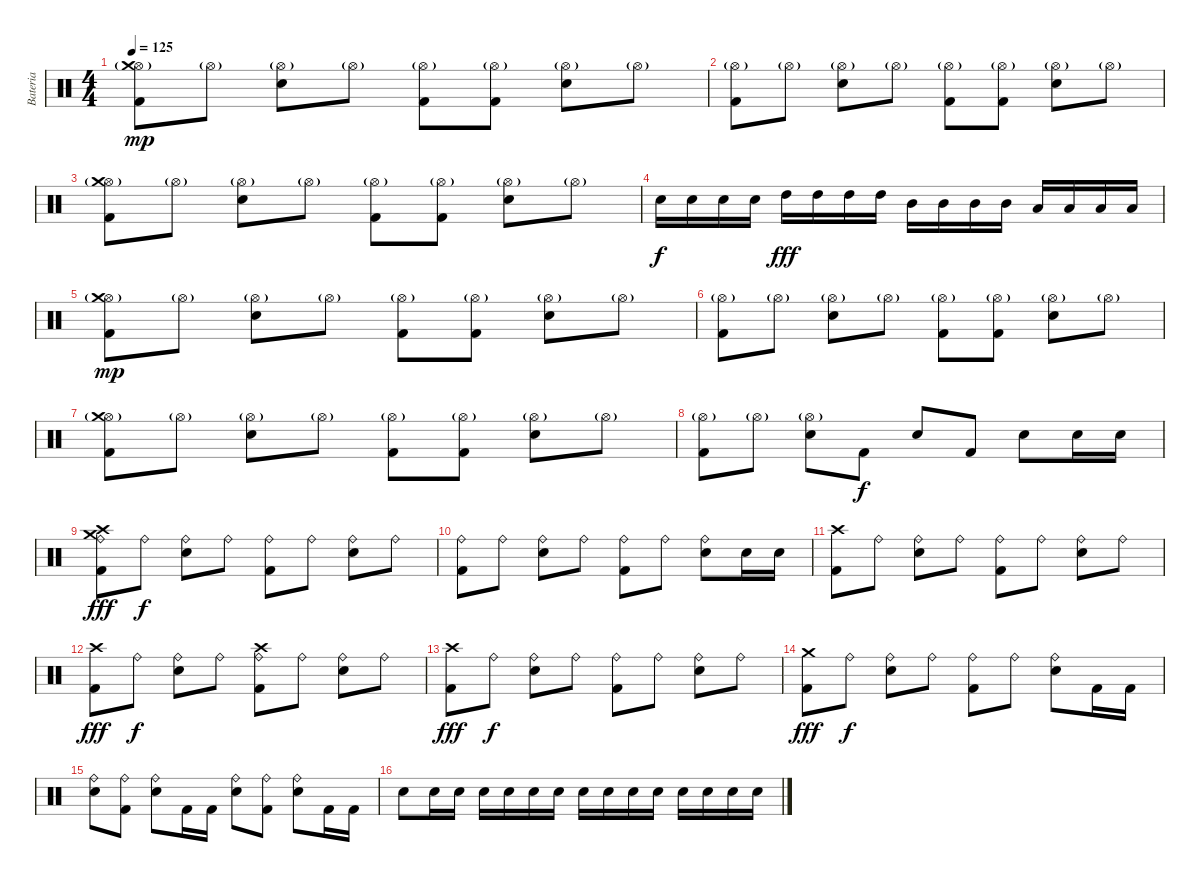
\track ("Bateria" "Bateria") {instrument percussion}
\staff {score}
\articulation defaults
\ts (4 4)
\tempo 125
\clef neutral
\ks c
("Hi-Hat (open)"{g} "Kick (hit) 2" "Crash medium (hit)").8{dy mp} "Hi-Hat (open)"{g}.8 ("Hi-Hat (open)"{g} "Snare (hit) 2").8 "Hi-Hat (open)"{g}.8 ("Hi-Hat (open)"{g} "Kick (hit) 2").8 ("Hi-Hat (open)"{g} "Kick (hit) 2").8 ("Hi-Hat (open)"{g} "Snare (hit) 2").8 "Hi-Hat (open)"{g}.8 |
("Hi-Hat (open)"{g} "Kick (hit) 2").8 "Hi-Hat (open)"{g}.8 ("Hi-Hat (open)"{g} "Snare (hit) 2").8 "Hi-Hat (open)"{g}.8 ("Hi-Hat (open)"{g} "Kick (hit) 2").8 ("Hi-Hat (open)"{g} "Kick (hit) 2").8 ("Hi-Hat (open)"{g} "Snare (hit) 2").8 "Hi-Hat (open)"{g}.8 |
("Hi-Hat (open)"{g} "Kick (hit) 2" "Crash medium (hit)").8 "Hi-Hat (open)"{g}.8 ("Hi-Hat (open)"{g} "Snare (hit) 2").8 "Hi-Hat (open)"{g}.8 ("Hi-Hat (open)"{g} "Kick (hit) 2").8 ("Hi-Hat (open)"{g} "Kick (hit) 2").8 ("Hi-Hat (open)"{g} "Snare (hit) 2").8 "Hi-Hat (open)"{g}.8 |
"Snare (hit) 2".16{dy f} "Snare (hit) 2".16 "Snare (hit) 2".16 "Snare (hit) 2".16 "High Tom (hit)".16{dy fff} "High Tom (hit)".16 "High Tom (hit)".16 "High Tom (hit)".16 "Mid Tom (hit)".16 "Mid Tom (hit)".16 "Mid Tom (hit)".16 "Mid Tom (hit)".16 "Low Tom (hit)".16 "Low Tom (hit)".16 "Low Tom (hit)".16 "Low Tom (hit)".16 |
("Hi-Hat (open)"{g} "Kick (hit) 2" "Crash medium (hit)").8{dy mp} "Hi-Hat (open)"{g}.8 ("Hi-Hat (open)"{g} "Snare (hit) 2").8 "Hi-Hat (open)"{g}.8 ("Hi-Hat (open)"{g} "Kick (hit) 2").8 ("Hi-Hat (open)"{g} "Kick (hit) 2").8 ("Hi-Hat (open)"{g} "Snare (hit) 2").8 "Hi-Hat (open)"{g}.8 |
("Hi-Hat (open)"{g} "Kick (hit) 2").8 "Hi-Hat (open)"{g}.8 ("Hi-Hat (open)"{g} "Snare (hit) 2").8 "Hi-Hat (open)"{g}.8 ("Hi-Hat (open)"{g} "Kick (hit) 2").8 ("Hi-Hat (open)"{g} "Kick (hit) 2").8 ("Hi-Hat (open)"{g} "Snare (hit) 2").8 "Hi-Hat (open)"{g}.8 |
("Hi-Hat (open)"{g} "Kick (hit) 2" "Crash medium (hit)").8 "Hi-Hat (open)"{g}.8 ("Hi-Hat (open)"{g} "Snare (hit) 2").8 "Hi-Hat (open)"{g}.8 ("Hi-Hat (open)"{g} "Kick (hit) 2").8 ("Hi-Hat (open)"{g} "Kick (hit) 2").8 ("Hi-Hat (open)"{g} "Snare (hit) 2").8 "Hi-Hat (open)"{g}.8 |
("Hi-Hat (open)"{g} "Kick (hit) 2").8 "Hi-Hat (open)"{g}.8 ("Hi-Hat (open)"{g} "Snare (hit) 2").8 "Kick (hit) 2".8{dy f} "Snare (hit) 2".8 "Kick (hit) 2".8 "Snare (hit) 2".8 "Snare (hit) 2".16 "Snare (hit) 2".16 |
("Ride (bell)" "Kick (hit) 2" "Crash medium (hit)" "Crash high (hit)").8{dy fff} "Ride (bell)".8{dy f} ("Ride (bell)" "Snare (hit) 2").8 "Ride (bell)".8 ("Ride (bell)" "Kick (hit) 2").8 "Ride (bell)".8 ("Ride (bell)" "Snare (hit) 2").8 "Ride (bell)".8 |
("Ride (bell)" "Kick (hit) 2").8 "Ride (bell)".8 ("Ride (bell)" "Snare (hit) 2").8 "Ride (bell)".8 ("Ride (bell)" "Kick (hit) 2").8 "Ride (bell)".8 ("Ride (bell)" "Snare (hit) 2").8 "Snare (hit) 2".16 "Snare (hit) 2".16 |
("Crash high (hit)" "Kick (hit) 2").8 "Ride (bell)".8 ("Ride (bell)" "Snare (hit) 2").8 "Ride (bell)".8 ("Ride (bell)" "Kick (hit) 2").8 "Ride (bell)".8 ("Ride (bell)" "Snare (hit) 2").8 "Ride (bell)".8 |
("Crash high (hit)" "Kick (hit) 2").8{dy fff} "Ride (bell)".8{dy f} ("Ride (bell)" "Snare (hit) 2").8 "Ride (bell)".8 ("Ride (bell)" "Kick (hit) 2" "Crash high (hit)").8 "Ride (bell)".8 ("Ride (bell)" "Snare (hit) 2").8 "Ride (bell)".8 |
("Crash high (hit)" "Kick (hit) 2").8{dy fff} "Ride (bell)".8{dy f} ("Ride (bell)" "Snare (hit) 2").8 "Ride (bell)".8 ("Ride (bell)" "Kick (hit) 2").8 "Ride (bell)".8 ("Ride (bell)" "Snare (hit) 2").8 "Ride (bell)".8 |
("Crash medium (hit)" "Kick (hit) 2").8{dy fff} "Ride (bell)".8{dy f} ("Ride (bell)" "Snare (hit) 2").8 "Ride (bell)".8 ("Ride (bell)" "Kick (hit) 2").8 "Ride (bell)".8 ("Ride (bell)" "Snare (hit) 2").8 "Kick (hit) 2".16 "Kick (hit) 2".16 |
("Snare (hit) 2" "Ride (bell)").8 ("Kick (hit) 2" "Ride (bell)").8 ("Snare (hit) 2" "Ride (bell)").8 "Kick (hit) 2".16 "Kick (hit) 2".16 ("Snare (hit) 2" "Ride (bell)").8 ("Kick (hit) 2" "Ride (bell)").8 ("Snare (hit) 2" "Ride (bell)").8 "Kick (hit) 2".16 "Kick (hit) 2".16 |
"Snare (hit) 2".8 "Snare (hit) 2".16 "Snare (hit) 2".16 "Snare (hit) 2".16 "Snare (hit) 2".16 "Snare (hit) 2".16 "Snare (hit) 2".16 "Snare (hit) 2".16 "Snare (hit) 2".16 "Snare (hit) 2".16 "Snare (hit) 2".16 "Snare (hit) 2".16 "Snare (hit) 2".16 "Snare (hit) 2".16 "Snare (hit) 2".16
